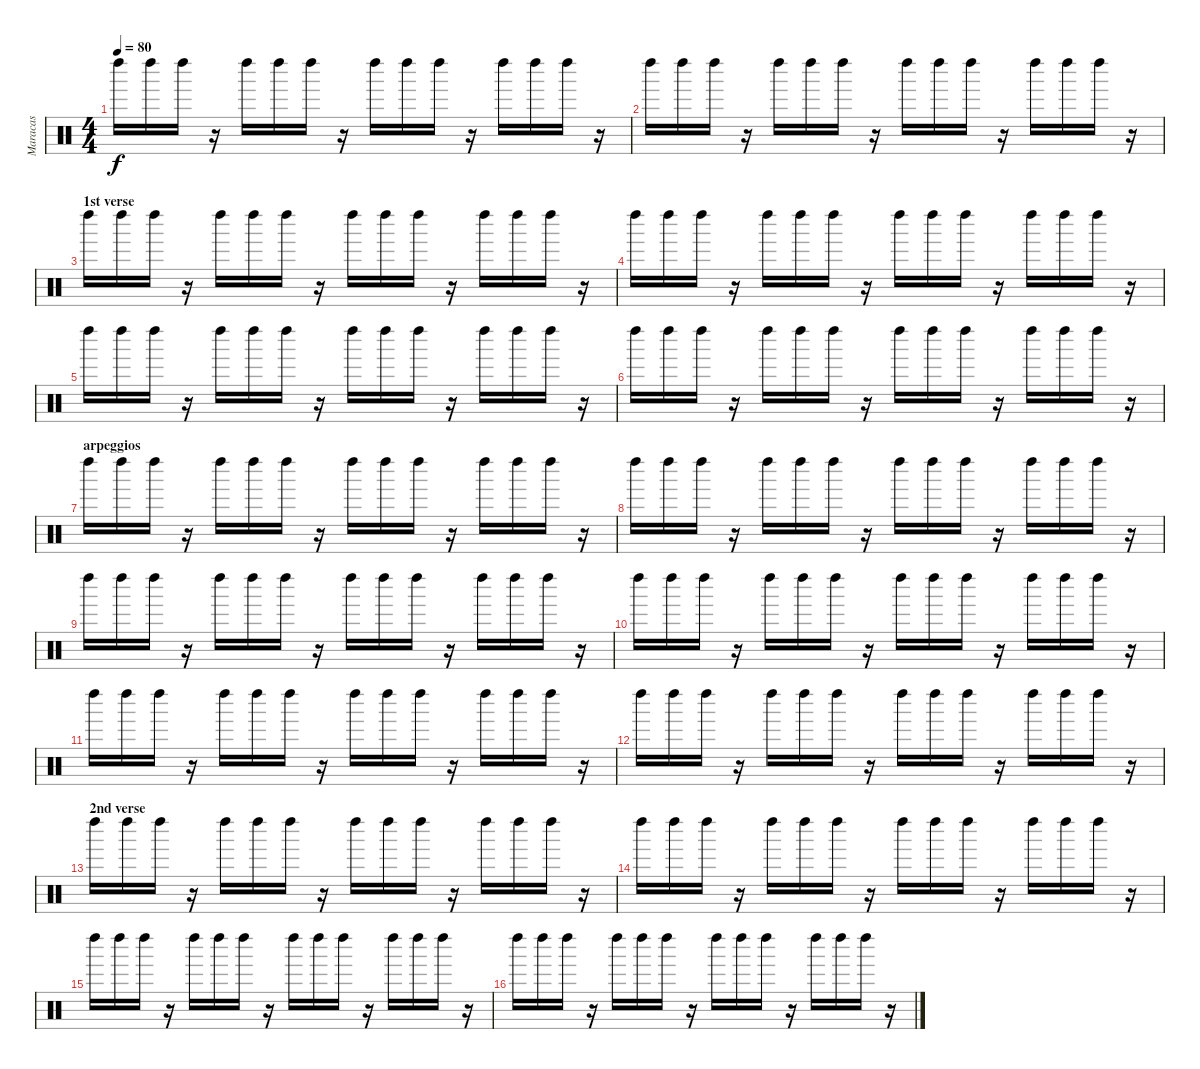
\track ("Maracas" "Maracas") {instrument percussion}
\staff {score}
\articulation defaults
\ts (4 4)
\tempo 80
\clef neutral
\ks aminor "Left Maraca (hit)".16{dy f} "Left Maraca (hit)".16 "Left Maraca (hit)".16
r.16 "Left Maraca (hit)".16 "Left Maraca (hit)".16 "Left Maraca (hit)".16 r.16 "Left Maraca (hit)".16 "Left Maraca (hit)".16 "Left Maraca (hit)".16 r.16 "Left Maraca (hit)".16 "Left Maraca (hit)".16 "Left Maraca (hit)".16 r.16 |
"Left Maraca (hit)".16 "Left Maraca (hit)".16 "Left Maraca (hit)".16 r.16 "Left Maraca (hit)".16 "Left Maraca (hit)".16 "Left Maraca (hit)".16 r.16 "Left Maraca (hit)".16 "Left Maraca (hit)".16 "Left Maraca (hit)".16 r.16 "Left Maraca (hit)".16 "Left Maraca (hit)".16 "Left Maraca (hit)".16 r.16 |
\section ("" "1st verse")
"Left Maraca (hit)".16 "Left Maraca (hit)".16 "Left Maraca (hit)".16 r.16 "Left Maraca (hit)".16 "Left Maraca (hit)".16 "Left Maraca (hit)".16 r.16 "Left Maraca (hit)".16 "Left Maraca (hit)".16 "Left Maraca (hit)".16 r.16 "Left Maraca (hit)".16 "Left Maraca (hit)".16 "Left Maraca (hit)".16 r.16 |
"Left Maraca (hit)".16 "Left Maraca (hit)".16 "Left Maraca (hit)".16 r.16 "Left Maraca (hit)".16 "Left Maraca (hit)".16 "Left Maraca (hit)".16 r.16 "Left Maraca (hit)".16 "Left Maraca (hit)".16 "Left Maraca (hit)".16 r.16 "Left Maraca (hit)".16 "Left Maraca (hit)".16 "Left Maraca (hit)".16 r.16 |
"Left Maraca (hit)".16 "Left Maraca (hit)".16 "Left Maraca (hit)".16 r.16 "Left Maraca (hit)".16 "Left Maraca (hit)".16 "Left Maraca (hit)".16 r.16 "Left Maraca (hit)".16 "Left Maraca (hit)".16 "Left Maraca (hit)".16 r.16 "Left Maraca (hit)".16 "Left Maraca (hit)".16 "Left Maraca (hit)".16 r.16 |
"Left Maraca (hit)".16 "Left Maraca (hit)".16 "Left Maraca (hit)".16 r.16 "Left Maraca (hit)".16 "Left Maraca (hit)".16 "Left Maraca (hit)".16 r.16 "Left Maraca (hit)".16 "Left Maraca (hit)".16 "Left Maraca (hit)".16 r.16 "Left Maraca (hit)".16 "Left Maraca (hit)".16 "Left Maraca (hit)".16 r.16 |
\section ("" "arpeggios")
"Left Maraca (hit)".16 "Left Maraca (hit)".16 "Left Maraca (hit)".16 r.16 "Left Maraca (hit)".16 "Left Maraca (hit)".16 "Left Maraca (hit)".16 r.16 "Left Maraca (hit)".16 "Left Maraca (hit)".16 "Left Maraca (hit)".16 r.16 "Left Maraca (hit)".16 "Left Maraca (hit)".16 "Left Maraca (hit)".16 r.16 |
"Left Maraca (hit)".16 "Left Maraca (hit)".16 "Left Maraca (hit)".16 r.16 "Left Maraca (hit)".16 "Left Maraca (hit)".16 "Left Maraca (hit)".16 r.16 "Left Maraca (hit)".16 "Left Maraca (hit)".16 "Left Maraca (hit)".16 r.16 "Left Maraca (hit)".16 "Left Maraca (hit)".16 "Left Maraca (hit)".16 r.16 |
"Left Maraca (hit)".16 "Left Maraca (hit)".16 "Left Maraca (hit)".16 r.16 "Left Maraca (hit)".16 "Left Maraca (hit)".16 "Left Maraca (hit)".16 r.16 "Left Maraca (hit)".16 "Left Maraca (hit)".16 "Left Maraca (hit)".16 r.16 "Left Maraca (hit)".16 "Left Maraca (hit)".16 "Left Maraca (hit)".16 r.16 |
"Left Maraca (hit)".16 "Left Maraca (hit)".16 "Left Maraca (hit)".16 r.16 "Left Maraca (hit)".16 "Left Maraca (hit)".16 "Left Maraca (hit)".16 r.16 "Left Maraca (hit)".16 "Left Maraca (hit)".16 "Left Maraca (hit)".16 r.16 "Left Maraca (hit)".16 "Left Maraca (hit)".16 "Left Maraca (hit)".16 r.16 |
"Left Maraca (hit)".16 "Left Maraca (hit)".16 "Left Maraca (hit)".16 r.16 "Left Maraca (hit)".16 "Left Maraca (hit)".16 "Left Maraca (hit)".16 r.16 "Left Maraca (hit)".16 "Left Maraca (hit)".16 "Left Maraca (hit)".16 r.16 "Left Maraca (hit)".16 "Left Maraca (hit)".16 "Left Maraca (hit)".16 r.16 |
"Left Maraca (hit)".16 "Left Maraca (hit)".16 "Left Maraca (hit)".16 r.16 "Left Maraca (hit)".16 "Left Maraca (hit)".16 "Left Maraca (hit)".16 r.16 "Left Maraca (hit)".16 "Left Maraca (hit)".16 "Left Maraca (hit)".16 r.16 "Left Maraca (hit)".16 "Left Maraca (hit)".16 "Left Maraca (hit)".16 r.16 |
\section ("" "2nd verse")
"Left Maraca (hit)".16 "Left Maraca (hit)".16 "Left Maraca (hit)".16 r.16 "Left Maraca (hit)".16 "Left Maraca (hit)".16 "Left Maraca (hit)".16 r.16 "Left Maraca (hit)".16 "Left Maraca (hit)".16 "Left Maraca (hit)".16 r.16 "Left Maraca (hit)".16 "Left Maraca (hit)".16 "Left Maraca (hit)".16 r.16 |
"Left Maraca (hit)".16 "Left Maraca (hit)".16 "Left Maraca (hit)".16 r.16 "Left Maraca (hit)".16 "Left Maraca (hit)".16 "Left Maraca (hit)".16 r.16 "Left Maraca (hit)".16 "Left Maraca (hit)".16 "Left Maraca (hit)".16 r.16 "Left Maraca (hit)".16 "Left Maraca (hit)".16 "Left Maraca (hit)".16 r.16 |
"Left Maraca (hit)".16 "Left Maraca (hit)".16 "Left Maraca (hit)".16 r.16 "Left Maraca (hit)".16 "Left Maraca (hit)".16 "Left Maraca (hit)".16 r.16 "Left Maraca (hit)".16 "Left Maraca (hit)".16 "Left Maraca (hit)".16 r.16 "Left Maraca (hit)".16 "Left Maraca (hit)".16 "Left Maraca (hit)".16 r.16 |
"Left Maraca (hit)".16 "Left Maraca (hit)".16 "Left Maraca (hit)".16 r.16 "Left Maraca (hit)".16 "Left Maraca (hit)".16 "Left Maraca (hit)".16 r.16 "Left Maraca (hit)".16 "Left Maraca (hit)".16 "Left Maraca (hit)".16 r.16 "Left Maraca (hit)".16 "Left Maraca (hit)".16 "Left Maraca (hit)".16 r.16
